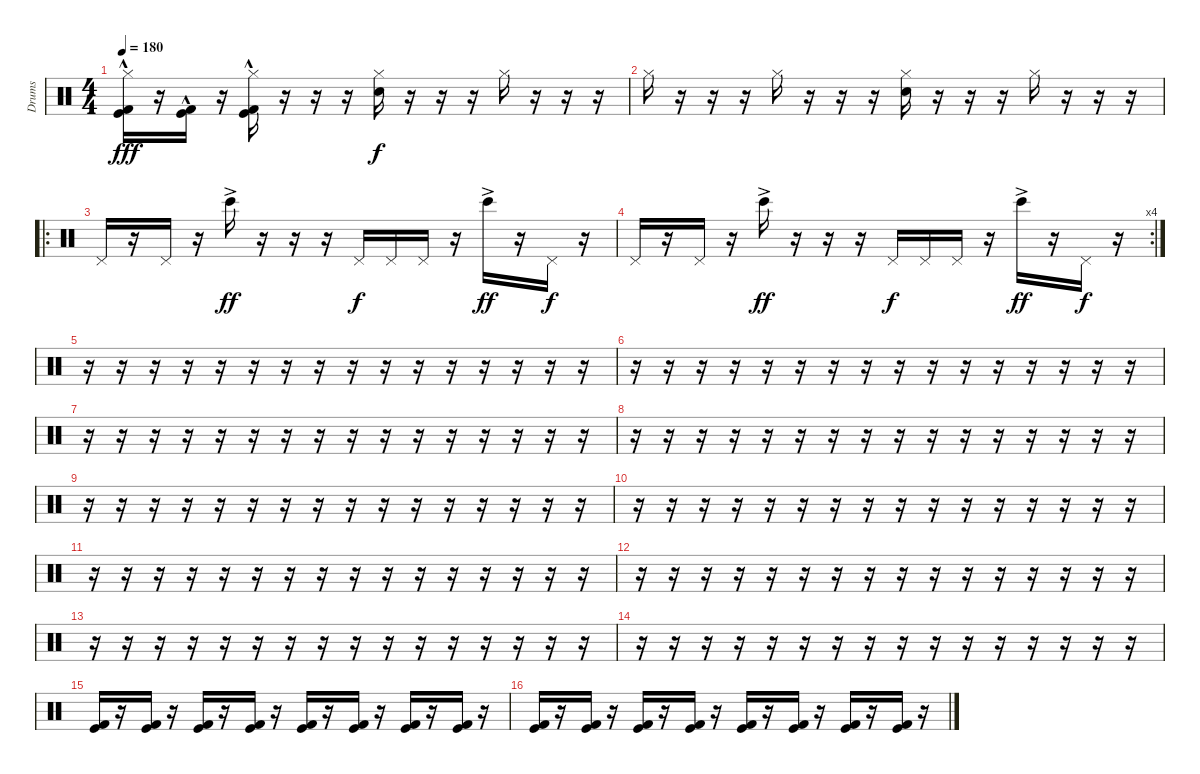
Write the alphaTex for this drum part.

\track ("Drums" "Drums") {instrument percussion}
\staff {score}
\articulation defaults
\ts (4 4)
\tempo 180
\clef neutral
\ks c
("Hi-Hat (closed)" "Kick (hit)"{hac} "Kick (hit) 2"{hac}).16{dy fff} r.16 ("Kick (hit)"{hac} "Kick (hit) 2"{hac}).16 r.16 ("Hi-Hat (closed)" "Kick (hit)"{hac} "Kick (hit) 2"{hac}).16 r.16 r.16 r.16 ("Hi-Hat (closed)" "Snare (hit) 2").16{dy f} r.16 r.16 r.16 "Hi-Hat (closed)".16 r.16 r.16 r.16 |
"Hi-Hat (closed)".16 r.16 r.16 r.16 "Hi-Hat (closed)".16 r.16 r.16 r.16 ("Hi-Hat (closed)" "Snare (hit) 2").16 r.16 r.16 r.16 "Hi-Hat (closed)".16 r.16 r.16 r.16 |
\ro "Pedal Hi-Hat (hit)".16{volume 7}
r.16 "Pedal Hi-Hat (hit)".16 r.16 "Bongo High (hit)"{ac}.16{dy ff} r.16 r.16 r.16 "Pedal Hi-Hat (hit)".16{dy f} "Pedal Hi-Hat (hit)".16 "Pedal Hi-Hat (hit)".16 r.16 "Bongo High (hit)"{ac}.16{dy ff} r.16 "Pedal Hi-Hat (hit)".16{dy f} r.16 |
\rc 4 "Pedal Hi-Hat (hit)".16
r.16 "Pedal Hi-Hat (hit)".16 r.16 "Bongo High (hit)"{ac}.16{dy ff} r.16 r.16 r.16 "Pedal Hi-Hat (hit)".16{dy f} "Pedal Hi-Hat (hit)".16 "Pedal Hi-Hat (hit)".16 r.16 "Bongo High (hit)"{ac}.16{dy ff} r.16 "Pedal Hi-Hat (hit)".16{dy f} r.16 |
r.16 r.16 r.16 r.16 r.16 r.16 r.16 r.16 r.16 r.16 r.16 r.16 r.16 r.16 r.16 r.16 |
r.16 r.16 r.16 r.16 r.16 r.16 r.16 r.16 r.16 r.16 r.16 r.16 r.16 r.16 r.16 r.16 |
r.16 r.16 r.16 r.16 r.16 r.16 r.16 r.16 r.16 r.16 r.16 r.16 r.16 r.16 r.16 r.16 |
r.16 r.16 r.16 r.16 r.16 r.16 r.16 r.16 r.16 r.16 r.16 r.16 r.16 r.16 r.16 r.16 |
r.16 r.16 r.16 r.16 r.16 r.16 r.16 r.16 r.16 r.16 r.16 r.16 r.16 r.16 r.16 r.16 |
r.16 r.16 r.16 r.16 r.16 r.16 r.16 r.16 r.16 r.16 r.16 r.16 r.16 r.16 r.16 r.16 |
r.16 r.16 r.16 r.16 r.16 r.16 r.16 r.16 r.16 r.16 r.16 r.16 r.16 r.16 r.16 r.16 |
r.16 r.16 r.16 r.16 r.16 r.16 r.16 r.16 r.16 r.16 r.16 r.16 r.16 r.16 r.16 r.16 |
r.16 r.16 r.16 r.16 r.16 r.16 r.16 r.16 r.16 r.16 r.16 r.16 r.16 r.16 r.16 r.16 |
r.16 r.16 r.16 r.16 r.16 r.16 r.16 r.16 r.16 r.16 r.16 r.16 r.16 r.16 r.16 r.16 |
("Kick (hit)" "Kick (hit) 2").16 r.16 ("Kick (hit)" "Kick (hit) 2").16 r.16 ("Kick (hit)" "Kick (hit) 2").16 r.16 ("Kick (hit)" "Kick (hit) 2").16 r.16 ("Kick (hit)" "Kick (hit) 2").16 r.16 ("Kick (hit)" "Kick (hit) 2").16 r.16 ("Kick (hit)" "Kick (hit) 2").16 r.16 ("Kick (hit)" "Kick (hit) 2").16 r.16 |
("Kick (hit)" "Kick (hit) 2").16 r.16 ("Kick (hit)" "Kick (hit) 2").16 r.16 ("Kick (hit)" "Kick (hit) 2").16 r.16 ("Kick (hit)" "Kick (hit) 2").16 r.16 ("Kick (hit)" "Kick (hit) 2").16 r.16 ("Kick (hit)" "Kick (hit) 2").16 r.16 ("Kick (hit)" "Kick (hit) 2").16 r.16 ("Kick (hit)" "Kick (hit) 2").16 r.16
